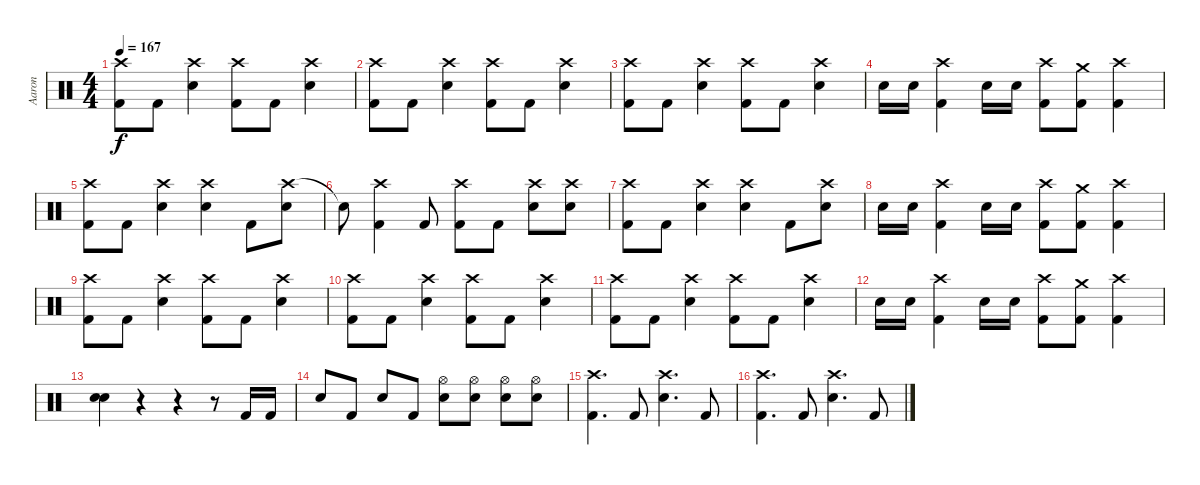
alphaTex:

\track ("Aaron" "Aaron") {instrument percussion}
\staff {score}
\articulation defaults
\ts (4 4)
\tempo 167
\clef neutral
\ks c
("Crash high (hit)" "Kick (hit) 2").8{dy f} "Kick (hit) 2".8 ("Crash high (hit)" "Electric Snare (hit)").4 ("Crash high (hit)" "Kick (hit) 2").8 "Kick (hit) 2".8 ("Crash high (hit)" "Electric Snare (hit)").4 |
("Crash high (hit)" "Kick (hit) 2").8 "Kick (hit) 2".8 ("Crash high (hit)" "Electric Snare (hit)").4 ("Crash high (hit)" "Kick (hit) 2").8 "Kick (hit) 2".8 ("Crash high (hit)" "Electric Snare (hit)").4 |
("Crash high (hit)" "Kick (hit) 2").8 "Kick (hit) 2".8 ("Crash high (hit)" "Electric Snare (hit)").4 ("Crash high (hit)" "Kick (hit) 2").8 "Kick (hit) 2".8 ("Crash high (hit)" "Electric Snare (hit)").4 |
"Electric Snare (hit)".16 "Electric Snare (hit)".16 ("Crash high (hit)" "Kick (hit) 2").4 "Electric Snare (hit)".16 "Electric Snare (hit)".16 ("Crash high (hit)" "Kick (hit) 2").8 ("Crash medium (hit)" "Kick (hit) 2").8 ("Crash high (hit)" "Kick (hit) 2").4 |
("Crash high (hit)" "Kick (hit) 2").8 "Kick (hit) 2".8 ("Crash high (hit)" "Electric Snare (hit)").4 ("Crash high (hit)" "Electric Snare (hit)").4 "Kick (hit) 2".8 ("Crash high (hit)" "Electric Snare (hit)").8 |
"Electric Snare (hit)"{t}.8 ("Crash high (hit)" "Kick (hit) 2").4 "Kick (hit) 2".8 ("Crash high (hit)" "Kick (hit) 2").8 "Kick (hit) 2".8 ("Crash high (hit)" "Electric Snare (hit)").8 ("Crash high (hit)" "Electric Snare (hit)").8 |
("Crash high (hit)" "Kick (hit) 2").8 "Kick (hit) 2".8 ("Crash high (hit)" "Electric Snare (hit)").4 ("Crash high (hit)" "Electric Snare (hit)").4 "Kick (hit) 2".8 ("Crash high (hit)" "Electric Snare (hit)").8 |
"Electric Snare (hit)".16 "Electric Snare (hit)".16 ("Crash high (hit)" "Kick (hit) 2").4 "Electric Snare (hit)".16 "Electric Snare (hit)".16 ("Crash high (hit)" "Kick (hit) 2").8 ("Crash medium (hit)" "Kick (hit) 2").8 ("Crash high (hit)" "Kick (hit) 2").4 |
("Crash high (hit)" "Kick (hit) 2").8 "Kick (hit) 2".8 ("Crash high (hit)" "Electric Snare (hit)").4 ("Crash high (hit)" "Kick (hit) 2").8 "Kick (hit) 2".8 ("Crash high (hit)" "Electric Snare (hit)").4 |
("Crash high (hit)" "Kick (hit) 2").8 "Kick (hit) 2".8 ("Crash high (hit)" "Electric Snare (hit)").4 ("Crash high (hit)" "Kick (hit) 2").8 "Kick (hit) 2".8 ("Crash high (hit)" "Electric Snare (hit)").4 |
("Crash high (hit)" "Kick (hit) 2").8 "Kick (hit) 2".8 ("Crash high (hit)" "Electric Snare (hit)").4 ("Crash high (hit)" "Kick (hit) 2").8 "Kick (hit) 2".8 ("Crash high (hit)" "Electric Snare (hit)").4 |
"Electric Snare (hit)".16 "Electric Snare (hit)".16 ("Crash high (hit)" "Kick (hit) 2").4 "Electric Snare (hit)".16 "Electric Snare (hit)".16 ("Crash high (hit)" "Kick (hit) 2").8 ("Crash medium (hit)" "Kick (hit) 2").8 ("Crash high (hit)" "Kick (hit) 2").4 |
("Electric Snare (hit)" "Electric Snare (hit)").4 r.4 r.4 r.8 "Kick (hit) 2".16 "Kick (hit) 2".16 |
"Electric Snare (hit)".8 "Kick (hit) 2".8 "Electric Snare (hit)".8 "Kick (hit) 2".8 ("Hi-Hat (open)" "Electric Snare (hit)").8 ("Hi-Hat (open)" "Electric Snare (hit)").8 ("Hi-Hat (open)" "Electric Snare (hit)").8 ("Hi-Hat (open)" "Electric Snare (hit)").8 |
("Crash high (hit)" "Kick (hit) 2").4{d} "Kick (hit) 2".8 ("Crash high (hit)" "Electric Snare (hit)").4{d} "Kick (hit) 2".8 |
("Crash high (hit)" "Kick (hit) 2").4{d} "Kick (hit) 2".8 ("Crash high (hit)" "Electric Snare (hit)").4{d} "Kick (hit) 2".8
